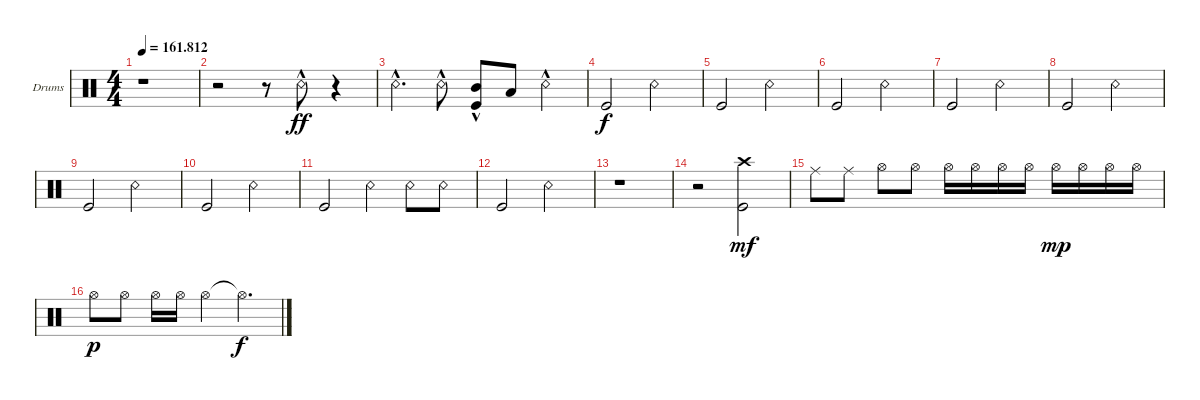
\bracketExtendMode groupsimilarinstruments
\firstSystemTrackNameOrientation horizontal
\otherSystemsTrackNameOrientation horizontal
\track ("Drumkit" "Drums") {solo instrument percussion}
\staff {score}
\articulation defaults
\ts (4 4)
\tempo
161.812
\accidentals auto
\clef neutral
\ottava regular
\simile none
\ks c
r.1{dy mf} |
r.2 r.8 "Snare (rim shot)"{hac}.8{dy ff} r.4 |
"Snare (rim shot)"{hac}.4{d} "Snare (rim shot)"{hac}.8 ("Mid Tom (hit)"{hac} "Kick (hit)").8 "Low Tom (hit)".8 "Snare (rim shot)"{hac}.4 |
"Kick (hit)".2{dy f} "Snare (rim shot)".2 |
"Kick (hit)".2 "Snare (rim shot)".2 |
"Kick (hit)".2 "Snare (rim shot)".2 |
"Kick (hit)".2 "Snare (rim shot)".2 |
"Kick (hit)".2 "Snare (rim shot)".2 |
"Kick (hit)".2 "Snare (rim shot)".2 |
"Kick (hit)".2 "Snare (rim shot)".2 |
"Kick (hit)".2 "Snare (rim shot)".4 "Snare (rim shot)".8 "Snare (rim shot)".8 |
"Kick (hit)".2 "Snare (rim shot)".2 |
r.1 |
r.2 ("Kick (hit)" "Crash high (hit)").2{dy mf} |
"Ride (middle)".8 "Ride (middle)".8 "Hi-Hat (open)".8 "Hi-Hat (open)".8 "Hi-Hat (open)".16 "Hi-Hat (open)".16 "Hi-Hat (open)".16 "Hi-Hat (open)".16 "Hi-Hat (open)".16{dy mp} "Hi-Hat (open)".16 "Hi-Hat (open)".16 "Hi-Hat (open)".16 |
"Hi-Hat (open)".8{dy p} "Hi-Hat (open)".8 "Hi-Hat (open)".16 "Hi-Hat (open)".16 "Hi-Hat (open)".4 "Hi-Hat (open)"{t}.4{d dy f}
